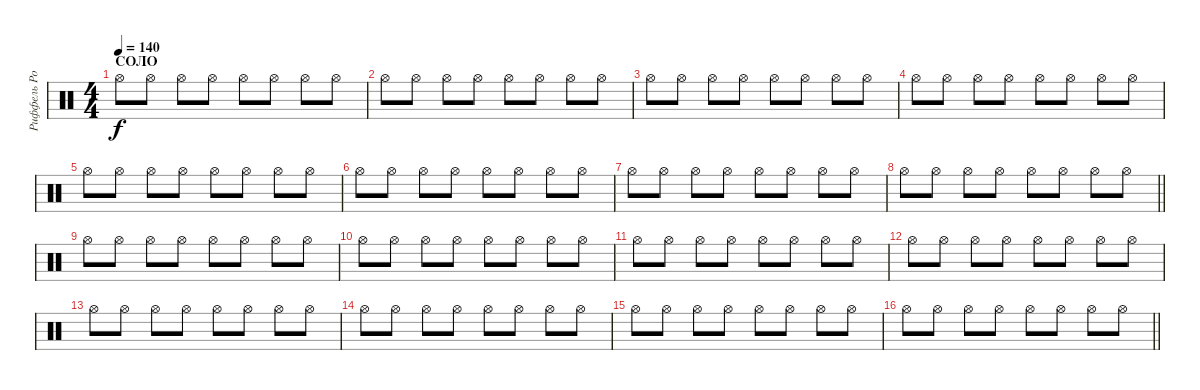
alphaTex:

\track ("Риффель Роман (хэты)" "Риффель Ро") {instrument percussion}
\staff {score}
\articulation defaults
\ts (4 4)
\section ("" "СОЛО")
\tempo 140
\clef neutral
\ks c "Hi-Hat (open)".8{dy f} "Hi-Hat (open)".8 "Hi-Hat (open)".8 "Hi-Hat (open)".8 "Hi-Hat (open)".8 "Hi-Hat (open)".8 "Hi-Hat (open)".8 "Hi-Hat (open)".8
|
"Hi-Hat (open)".8 "Hi-Hat (open)".8 "Hi-Hat (open)".8 "Hi-Hat (open)".8 "Hi-Hat (open)".8 "Hi-Hat (open)".8 "Hi-Hat (open)".8 "Hi-Hat (open)".8 |
"Hi-Hat (open)".8 "Hi-Hat (open)".8 "Hi-Hat (open)".8 "Hi-Hat (open)".8 "Hi-Hat (open)".8 "Hi-Hat (open)".8 "Hi-Hat (open)".8 "Hi-Hat (open)".8 |
"Hi-Hat (open)".8 "Hi-Hat (open)".8 "Hi-Hat (open)".8 "Hi-Hat (open)".8 "Hi-Hat (open)".8 "Hi-Hat (open)".8 "Hi-Hat (open)".8 "Hi-Hat (open)".8 |
"Hi-Hat (open)".8 "Hi-Hat (open)".8 "Hi-Hat (open)".8 "Hi-Hat (open)".8 "Hi-Hat (open)".8 "Hi-Hat (open)".8 "Hi-Hat (open)".8 "Hi-Hat (open)".8 |
"Hi-Hat (open)".8 "Hi-Hat (open)".8 "Hi-Hat (open)".8 "Hi-Hat (open)".8 "Hi-Hat (open)".8 "Hi-Hat (open)".8 "Hi-Hat (open)".8 "Hi-Hat (open)".8 |
"Hi-Hat (open)".8 "Hi-Hat (open)".8 "Hi-Hat (open)".8 "Hi-Hat (open)".8 "Hi-Hat (open)".8 "Hi-Hat (open)".8 "Hi-Hat (open)".8 "Hi-Hat (open)".8 |
\barLineRight lightlight "Hi-Hat (open)".8 "Hi-Hat (open)".8 "Hi-Hat (open)".8 "Hi-Hat (open)".8 "Hi-Hat (open)".8 "Hi-Hat (open)".8 "Hi-Hat (open)".8 "Hi-Hat (open)".8
|
"Hi-Hat (open)".8 "Hi-Hat (open)".8 "Hi-Hat (open)".8 "Hi-Hat (open)".8 "Hi-Hat (open)".8 "Hi-Hat (open)".8 "Hi-Hat (open)".8 "Hi-Hat (open)".8 |
"Hi-Hat (open)".8 "Hi-Hat (open)".8 "Hi-Hat (open)".8 "Hi-Hat (open)".8 "Hi-Hat (open)".8 "Hi-Hat (open)".8 "Hi-Hat (open)".8 "Hi-Hat (open)".8 |
"Hi-Hat (open)".8 "Hi-Hat (open)".8 "Hi-Hat (open)".8 "Hi-Hat (open)".8 "Hi-Hat (open)".8 "Hi-Hat (open)".8 "Hi-Hat (open)".8 "Hi-Hat (open)".8 |
"Hi-Hat (open)".8 "Hi-Hat (open)".8 "Hi-Hat (open)".8 "Hi-Hat (open)".8 "Hi-Hat (open)".8 "Hi-Hat (open)".8 "Hi-Hat (open)".8 "Hi-Hat (open)".8 |
"Hi-Hat (open)".8 "Hi-Hat (open)".8 "Hi-Hat (open)".8 "Hi-Hat (open)".8 "Hi-Hat (open)".8 "Hi-Hat (open)".8 "Hi-Hat (open)".8 "Hi-Hat (open)".8 |
"Hi-Hat (open)".8 "Hi-Hat (open)".8 "Hi-Hat (open)".8 "Hi-Hat (open)".8 "Hi-Hat (open)".8 "Hi-Hat (open)".8 "Hi-Hat (open)".8 "Hi-Hat (open)".8 |
"Hi-Hat (open)".8 "Hi-Hat (open)".8 "Hi-Hat (open)".8 "Hi-Hat (open)".8 "Hi-Hat (open)".8 "Hi-Hat (open)".8 "Hi-Hat (open)".8 "Hi-Hat (open)".8 |
\barLineRight lightlight "Hi-Hat (open)".8 "Hi-Hat (open)".8 "Hi-Hat (open)".8 "Hi-Hat (open)".8 "Hi-Hat (open)".8 "Hi-Hat (open)".8 "Hi-Hat (open)".8 "Hi-Hat (open)".8
